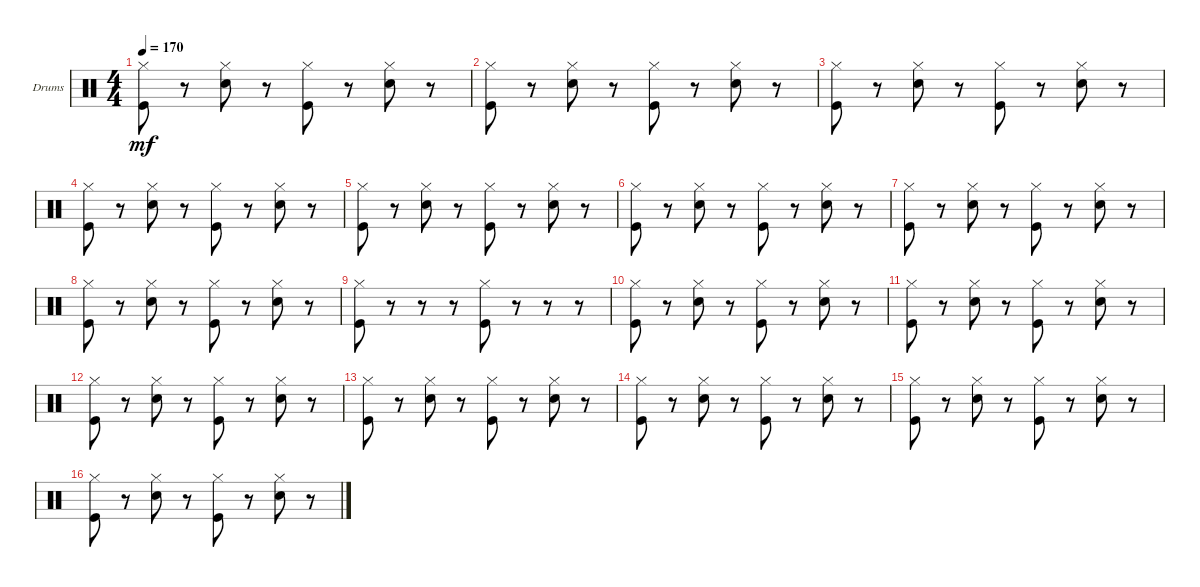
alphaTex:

\defaultSystemsLayout 4
\bracketExtendMode groupsimilarinstruments
\firstSystemTrackNameOrientation horizontal
\otherSystemsTrackNameOrientation horizontal
\track ("Drumkit" "Drums") {instrument percussion}
\staff {score}
\articulation defaults
\ts (4 4)
\tempo 170
\clef neutral
\ks c
("Kick (hit)" "Hi-Hat (closed)").8{dy mf} r.8 ("Snare (hit) 2" "Hi-Hat (closed)").8 r.8 ("Kick (hit)" "Hi-Hat (closed)").8 r.8 ("Snare (hit) 2" "Hi-Hat (closed)").8 r.8 |
("Kick (hit)" "Hi-Hat (closed)").8 r.8 ("Snare (hit) 2" "Hi-Hat (closed)").8 r.8 ("Kick (hit)" "Hi-Hat (closed)").8 r.8 ("Snare (hit) 2" "Hi-Hat (closed)").8 r.8 |
("Kick (hit)" "Hi-Hat (closed)").8 r.8 ("Snare (hit) 2" "Hi-Hat (closed)").8 r.8 ("Kick (hit)" "Hi-Hat (closed)").8 r.8 ("Snare (hit) 2" "Hi-Hat (closed)").8 r.8 |
("Kick (hit)" "Hi-Hat (closed)").8 r.8 ("Snare (hit) 2" "Hi-Hat (closed)").8 r.8 ("Kick (hit)" "Hi-Hat (closed)").8 r.8 ("Snare (hit) 2" "Hi-Hat (closed)").8 r.8 |
("Kick (hit)" "Hi-Hat (closed)").8 r.8 ("Snare (hit) 2" "Hi-Hat (closed)").8 r.8 ("Kick (hit)" "Hi-Hat (closed)").8 r.8 ("Snare (hit) 2" "Hi-Hat (closed)").8 r.8 |
("Kick (hit)" "Hi-Hat (closed)").8 r.8 ("Snare (hit) 2" "Hi-Hat (closed)").8 r.8 ("Kick (hit)" "Hi-Hat (closed)").8 r.8 ("Snare (hit) 2" "Hi-Hat (closed)").8 r.8 |
("Kick (hit)" "Hi-Hat (closed)").8 r.8 ("Snare (hit) 2" "Hi-Hat (closed)").8 r.8 ("Kick (hit)" "Hi-Hat (closed)").8 r.8 ("Snare (hit) 2" "Hi-Hat (closed)").8 r.8 |
("Kick (hit)" "Hi-Hat (closed)").8 r.8 ("Snare (hit) 2" "Hi-Hat (closed)").8 r.8 ("Kick (hit)" "Hi-Hat (closed)").8 r.8 ("Snare (hit) 2" "Hi-Hat (closed)").8 r.8 |
("Kick (hit)" "Hi-Hat (closed)").8 r.8 r.8 r.8 ("Kick (hit)" "Hi-Hat (closed)").8 r.8 r.8 r.8 |
("Kick (hit)" "Hi-Hat (closed)").8 r.8 ("Snare (hit) 2" "Hi-Hat (closed)").8 r.8 ("Kick (hit)" "Hi-Hat (closed)").8 r.8 ("Snare (hit) 2" "Hi-Hat (closed)").8 r.8 |
("Kick (hit)" "Hi-Hat (closed)").8 r.8 ("Snare (hit) 2" "Hi-Hat (closed)").8 r.8 ("Kick (hit)" "Hi-Hat (closed)").8 r.8 ("Snare (hit) 2" "Hi-Hat (closed)").8 r.8 |
("Kick (hit)" "Hi-Hat (closed)").8 r.8 ("Snare (hit) 2" "Hi-Hat (closed)").8 r.8 ("Kick (hit)" "Hi-Hat (closed)").8 r.8 ("Snare (hit) 2" "Hi-Hat (closed)").8 r.8 |
("Kick (hit)" "Hi-Hat (closed)").8 r.8 ("Snare (hit) 2" "Hi-Hat (closed)").8 r.8 ("Kick (hit)" "Hi-Hat (closed)").8 r.8 ("Snare (hit) 2" "Hi-Hat (closed)").8 r.8 |
("Kick (hit)" "Hi-Hat (closed)").8 r.8 ("Snare (hit) 2" "Hi-Hat (closed)").8 r.8 ("Kick (hit)" "Hi-Hat (closed)").8 r.8 ("Snare (hit) 2" "Hi-Hat (closed)").8 r.8 |
("Kick (hit)" "Hi-Hat (closed)").8 r.8 ("Snare (hit) 2" "Hi-Hat (closed)").8 r.8 ("Kick (hit)" "Hi-Hat (closed)").8 r.8 ("Snare (hit) 2" "Hi-Hat (closed)").8 r.8 |
("Kick (hit)" "Hi-Hat (closed)").8 r.8 ("Snare (hit) 2" "Hi-Hat (closed)").8 r.8 ("Kick (hit)" "Hi-Hat (closed)").8 r.8 ("Snare (hit) 2" "Hi-Hat (closed)").8 r.8
